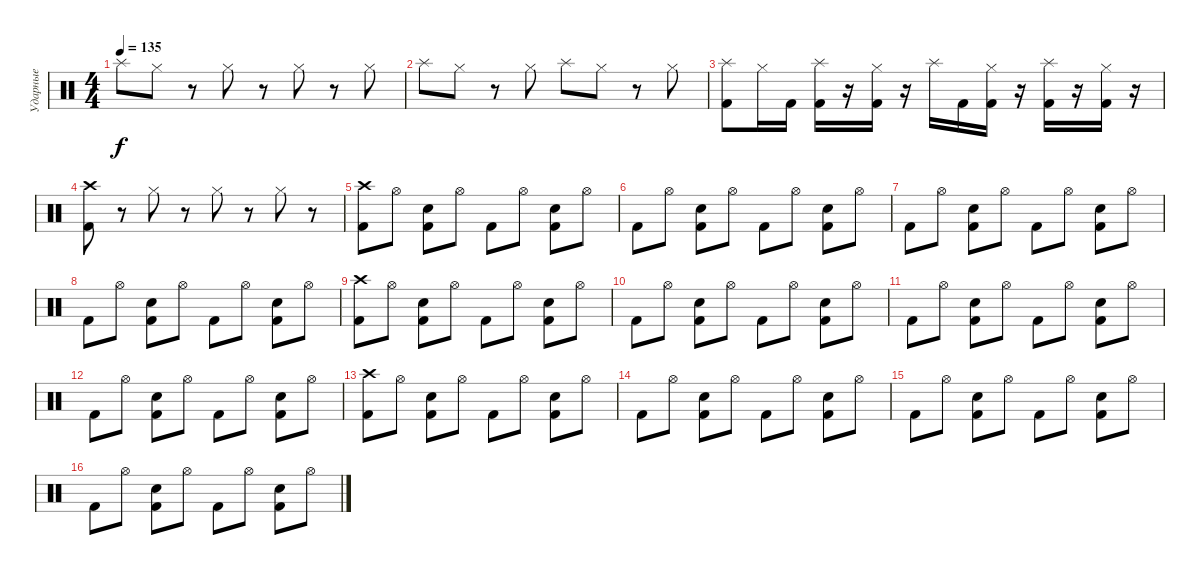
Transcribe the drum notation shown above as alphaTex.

\track ("Ударные" "Ударные") {instrument percussion}
\staff {score}
\articulation defaults
\ts (4 4)
\tempo 135
\clef neutral
\ks c "Splash (hit)".8{dy f} "Hi-Hat (closed)".8
r.8 "Hi-Hat (closed)".8 r.8 "Hi-Hat (closed)".8 r.8 "Hi-Hat (closed)".8 |
"Splash (hit)".8 "Hi-Hat (closed)".8 r.8 "Hi-Hat (closed)".8 "Splash (hit)".8 "Hi-Hat (closed)".8 r.8 "Hi-Hat (closed)".8 |
("Kick (hit) 2" "Splash (hit)").8 "Hi-Hat (closed)".16 "Kick (hit) 2".16 ("Kick (hit) 2" "Splash (hit)").16 r.16 ("Kick (hit) 2" "Hi-Hat (closed)").16 r.16 "Splash (hit)".16 "Kick (hit) 2".16 ("Kick (hit) 2" "Hi-Hat (closed)").16 r.16 ("Kick (hit) 2" "Splash (hit)").16 r.16 ("Kick (hit) 2" "Hi-Hat (closed)").16 r.16 |
("Kick (hit) 2" "Crash high (hit)").8 r.8 "Hi-Hat (closed)".8 r.8 "Hi-Hat (closed)".8 r.8 "Hi-Hat (closed)".8 r.8 |
("Kick (hit) 2" "Crash high (hit)").8 "Hi-Hat (open)".8 ("Kick (hit) 2" "Snare (hit) 2").8 "Hi-Hat (open)".8 "Kick (hit) 2".8 "Hi-Hat (open)".8 ("Kick (hit) 2" "Snare (hit) 2").8 "Hi-Hat (open)".8 |
"Kick (hit) 2".8 "Hi-Hat (open)".8 ("Kick (hit) 2" "Snare (hit) 2").8 "Hi-Hat (open)".8 "Kick (hit) 2".8 "Hi-Hat (open)".8 ("Kick (hit) 2" "Snare (hit) 2").8 "Hi-Hat (open)".8 |
"Kick (hit) 2".8 "Hi-Hat (open)".8 ("Kick (hit) 2" "Snare (hit) 2").8 "Hi-Hat (open)".8 "Kick (hit) 2".8 "Hi-Hat (open)".8 ("Kick (hit) 2" "Snare (hit) 2").8 "Hi-Hat (open)".8 |
"Kick (hit) 2".8 "Hi-Hat (open)".8 ("Kick (hit) 2" "Snare (hit) 2").8 "Hi-Hat (open)".8 "Kick (hit) 2".8 "Hi-Hat (open)".8 ("Kick (hit) 2" "Snare (hit) 2").8 "Hi-Hat (open)".8 |
("Kick (hit) 2" "Crash high (hit)").8 "Hi-Hat (open)".8 ("Kick (hit) 2" "Snare (hit) 2").8 "Hi-Hat (open)".8 "Kick (hit) 2".8 "Hi-Hat (open)".8 ("Kick (hit) 2" "Snare (hit) 2").8 "Hi-Hat (open)".8 |
"Kick (hit) 2".8 "Hi-Hat (open)".8 ("Kick (hit) 2" "Snare (hit) 2").8 "Hi-Hat (open)".8 "Kick (hit) 2".8 "Hi-Hat (open)".8 ("Kick (hit) 2" "Snare (hit) 2").8 "Hi-Hat (open)".8 |
"Kick (hit) 2".8 "Hi-Hat (open)".8 ("Kick (hit) 2" "Snare (hit) 2").8 "Hi-Hat (open)".8 "Kick (hit) 2".8 "Hi-Hat (open)".8 ("Kick (hit) 2" "Snare (hit) 2").8 "Hi-Hat (open)".8 |
"Kick (hit) 2".8 "Hi-Hat (open)".8 ("Kick (hit) 2" "Snare (hit) 2").8 "Hi-Hat (open)".8 "Kick (hit) 2".8 "Hi-Hat (open)".8 ("Kick (hit) 2" "Snare (hit) 2").8 "Hi-Hat (open)".8 |
("Kick (hit) 2" "Crash high (hit)").8 "Hi-Hat (open)".8 ("Kick (hit) 2" "Snare (hit) 2").8 "Hi-Hat (open)".8 "Kick (hit) 2".8 "Hi-Hat (open)".8 ("Kick (hit) 2" "Snare (hit) 2").8 "Hi-Hat (open)".8 |
"Kick (hit) 2".8 "Hi-Hat (open)".8 ("Kick (hit) 2" "Snare (hit) 2").8 "Hi-Hat (open)".8 "Kick (hit) 2".8 "Hi-Hat (open)".8 ("Kick (hit) 2" "Snare (hit) 2").8 "Hi-Hat (open)".8 |
"Kick (hit) 2".8 "Hi-Hat (open)".8 ("Kick (hit) 2" "Snare (hit) 2").8 "Hi-Hat (open)".8 "Kick (hit) 2".8 "Hi-Hat (open)".8 ("Kick (hit) 2" "Snare (hit) 2").8 "Hi-Hat (open)".8 |
"Kick (hit) 2".8 "Hi-Hat (open)".8 ("Kick (hit) 2" "Snare (hit) 2").8 "Hi-Hat (open)".8 "Kick (hit) 2".8 "Hi-Hat (open)".8 ("Kick (hit) 2" "Snare (hit) 2").8 "Hi-Hat (open)".8
